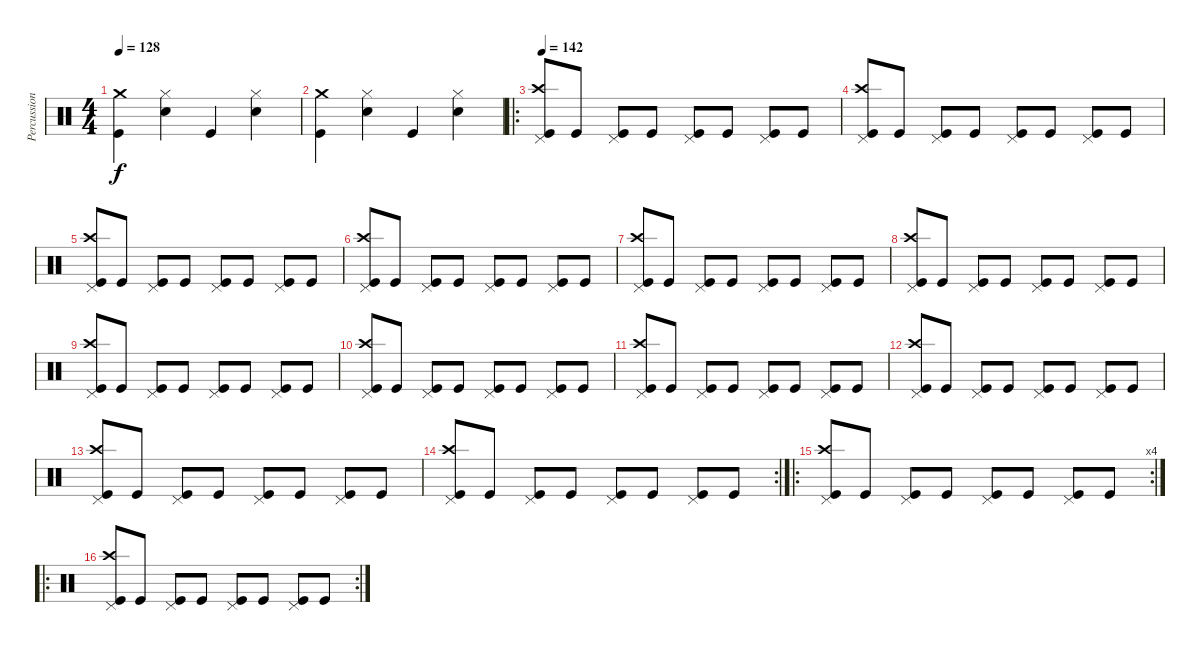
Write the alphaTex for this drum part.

\track ("Percussion" "Percussion") {instrument percussion}
\staff {score}
\articulation defaults
\ts (4 4)
\tempo 128
\clef neutral
\ks c
("Crash medium (hit)" "Kick (hit)").4{dy f} ("Snare (hit) 2" "Hi-Hat (closed)").4 "Kick (hit)".4 ("Snare (hit) 2" "Hi-Hat (closed)").4 |
("Crash medium (hit)" "Kick (hit)").4 ("Snare (hit) 2" "Hi-Hat (closed)").4 "Kick (hit)".4 ("Snare (hit) 2" "Hi-Hat (closed)").4 |
\ro
\tempo 142
("Crash high (hit)" "Pedal Hi-Hat (hit)" "Kick (hit)").8 "Kick (hit)".8 ("Pedal Hi-Hat (hit)" "Kick (hit)").8 "Kick (hit)".8 ("Pedal Hi-Hat (hit)" "Kick (hit)").8 "Kick (hit)".8 ("Pedal Hi-Hat (hit)" "Kick (hit)").8 "Kick (hit)".8 |
("Crash high (hit)" "Pedal Hi-Hat (hit)" "Kick (hit)").8 "Kick (hit)".8 ("Pedal Hi-Hat (hit)" "Kick (hit)").8 "Kick (hit)".8 ("Pedal Hi-Hat (hit)" "Kick (hit)").8 "Kick (hit)".8 ("Pedal Hi-Hat (hit)" "Kick (hit)").8 "Kick (hit)".8 |
("Crash high (hit)" "Pedal Hi-Hat (hit)" "Kick (hit)").8 "Kick (hit)".8 ("Pedal Hi-Hat (hit)" "Kick (hit)").8 "Kick (hit)".8 ("Pedal Hi-Hat (hit)" "Kick (hit)").8 "Kick (hit)".8 ("Pedal Hi-Hat (hit)" "Kick (hit)").8 "Kick (hit)".8 |
("Crash high (hit)" "Pedal Hi-Hat (hit)" "Kick (hit)").8 "Kick (hit)".8 ("Pedal Hi-Hat (hit)" "Kick (hit)").8 "Kick (hit)".8 ("Pedal Hi-Hat (hit)" "Kick (hit)").8 "Kick (hit)".8 ("Pedal Hi-Hat (hit)" "Kick (hit)").8 "Kick (hit)".8 |
("Crash high (hit)" "Pedal Hi-Hat (hit)" "Kick (hit)").8 "Kick (hit)".8 ("Pedal Hi-Hat (hit)" "Kick (hit)").8 "Kick (hit)".8 ("Pedal Hi-Hat (hit)" "Kick (hit)").8 "Kick (hit)".8 ("Pedal Hi-Hat (hit)" "Kick (hit)").8 "Kick (hit)".8 |
("Crash high (hit)" "Pedal Hi-Hat (hit)" "Kick (hit)").8 "Kick (hit)".8 ("Pedal Hi-Hat (hit)" "Kick (hit)").8 "Kick (hit)".8 ("Pedal Hi-Hat (hit)" "Kick (hit)").8 "Kick (hit)".8 ("Pedal Hi-Hat (hit)" "Kick (hit)").8 "Kick (hit)".8 |
("Crash high (hit)" "Pedal Hi-Hat (hit)" "Kick (hit)").8 "Kick (hit)".8 ("Pedal Hi-Hat (hit)" "Kick (hit)").8 "Kick (hit)".8 ("Pedal Hi-Hat (hit)" "Kick (hit)").8 "Kick (hit)".8 ("Pedal Hi-Hat (hit)" "Kick (hit)").8 "Kick (hit)".8 |
("Crash high (hit)" "Pedal Hi-Hat (hit)" "Kick (hit)").8 "Kick (hit)".8 ("Pedal Hi-Hat (hit)" "Kick (hit)").8 "Kick (hit)".8 ("Pedal Hi-Hat (hit)" "Kick (hit)").8 "Kick (hit)".8 ("Pedal Hi-Hat (hit)" "Kick (hit)").8 "Kick (hit)".8 |
("Crash high (hit)" "Pedal Hi-Hat (hit)" "Kick (hit)").8 "Kick (hit)".8 ("Pedal Hi-Hat (hit)" "Kick (hit)").8 "Kick (hit)".8 ("Pedal Hi-Hat (hit)" "Kick (hit)").8 "Kick (hit)".8 ("Pedal Hi-Hat (hit)" "Kick (hit)").8 "Kick (hit)".8 |
("Crash high (hit)" "Pedal Hi-Hat (hit)" "Kick (hit)").8 "Kick (hit)".8 ("Pedal Hi-Hat (hit)" "Kick (hit)").8 "Kick (hit)".8 ("Pedal Hi-Hat (hit)" "Kick (hit)").8 "Kick (hit)".8 ("Pedal Hi-Hat (hit)" "Kick (hit)").8 "Kick (hit)".8 |
("Crash high (hit)" "Pedal Hi-Hat (hit)" "Kick (hit)").8 "Kick (hit)".8 ("Pedal Hi-Hat (hit)" "Kick (hit)").8 "Kick (hit)".8 ("Pedal Hi-Hat (hit)" "Kick (hit)").8 "Kick (hit)".8 ("Pedal Hi-Hat (hit)" "Kick (hit)").8 "Kick (hit)".8 |
\rc 2
("Crash high (hit)" "Pedal Hi-Hat (hit)" "Kick (hit)").8 "Kick (hit)".8 ("Pedal Hi-Hat (hit)" "Kick (hit)").8 "Kick (hit)".8 ("Pedal Hi-Hat (hit)" "Kick (hit)").8 "Kick (hit)".8 ("Pedal Hi-Hat (hit)" "Kick (hit)").8 "Kick (hit)".8 |
\ro
\rc 4
("Crash high (hit)" "Pedal Hi-Hat (hit)" "Kick (hit)").8 "Kick (hit)".8 ("Pedal Hi-Hat (hit)" "Kick (hit)").8 "Kick (hit)".8 ("Pedal Hi-Hat (hit)" "Kick (hit)").8 "Kick (hit)".8 ("Pedal Hi-Hat (hit)" "Kick (hit)").8 "Kick (hit)".8 |
\ro
\rc 2
("Crash high (hit)" "Pedal Hi-Hat (hit)" "Kick (hit)").8 "Kick (hit)".8 ("Pedal Hi-Hat (hit)" "Kick (hit)").8 "Kick (hit)".8 ("Pedal Hi-Hat (hit)" "Kick (hit)").8 "Kick (hit)".8 ("Pedal Hi-Hat (hit)" "Kick (hit)").8 "Kick (hit)".8
